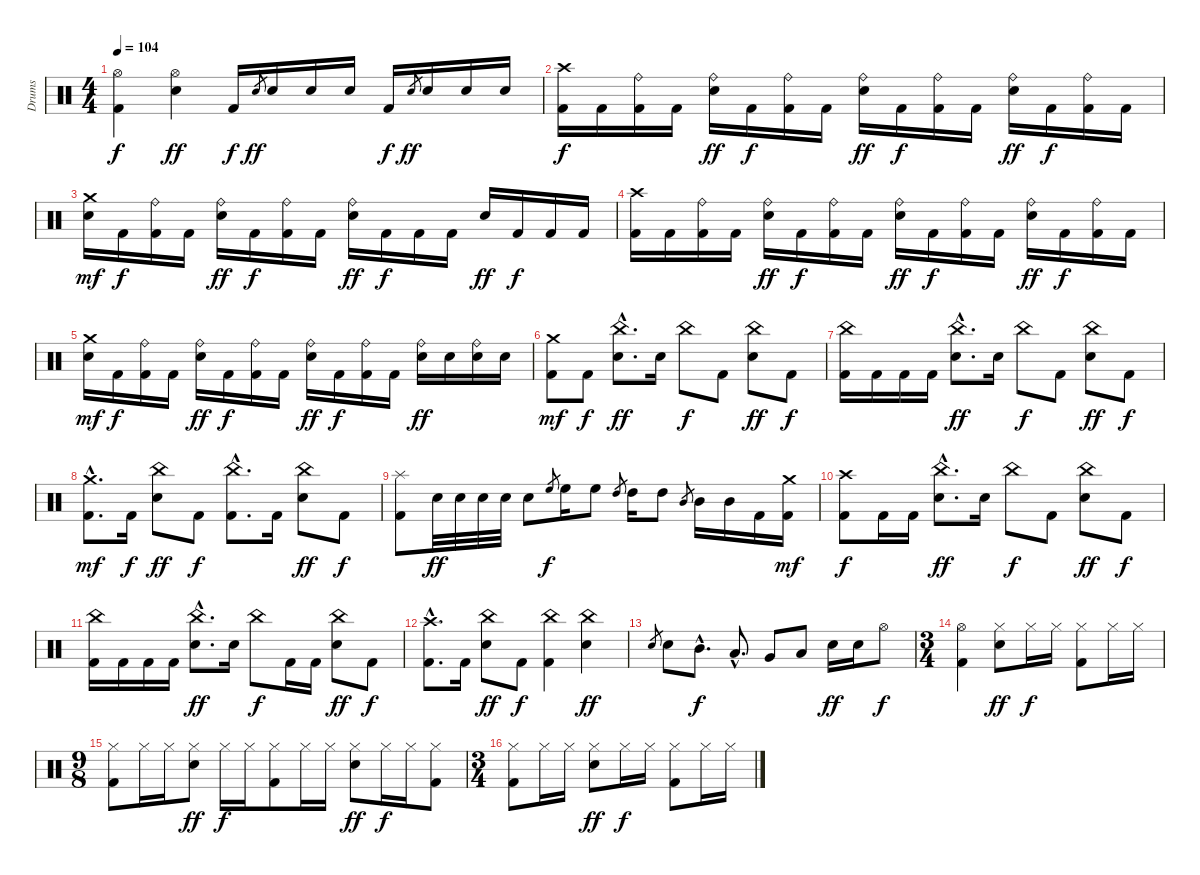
\track ("Drums" "Drums") {instrument percussion}
\staff {score}
\articulation defaults
\ts (4 4)
\tempo 104
\clef neutral
\ks c
("Kick (hit) 2" "Hi-Hat (open)").4{dy f} ("Electric Snare (hit)" "Hi-Hat (open)").4{dy ff} "Kick (hit) 2".16{dy f} "Electric Snare (hit)".8{gr dy ff} "Electric Snare (hit)".16 "Electric Snare (hit)".16 "Electric Snare (hit)".16 "Kick (hit) 2".16{dy f} "Electric Snare (hit)".8{gr dy ff} "Electric Snare (hit)".16 "Electric Snare (hit)".16 "Electric Snare (hit)".16 |
("Kick (hit) 2" "Crash high (hit)").16{dy f} "Kick (hit) 2".16 ("Kick (hit) 2" "Ride (bell)").16 "Kick (hit) 2".16 ("Electric Snare (hit)" "Ride (bell)").16{dy ff} "Kick (hit) 2".16{dy f} ("Kick (hit) 2" "Ride (bell)").16 "Kick (hit) 2".16 ("Electric Snare (hit)" "Ride (bell)").16{dy ff} "Kick (hit) 2".16{dy f} ("Kick (hit) 2" "Ride (bell)").16 "Kick (hit) 2".16 ("Electric Snare (hit)" "Ride (bell)").16{dy ff} "Kick (hit) 2".16{dy f} ("Kick (hit) 2" "Ride (bell)").16 "Kick (hit) 2".16 |
("Electric Snare (hit)" "Crash medium (hit)").16{dy mf} "Kick (hit) 2".16{dy f} ("Kick (hit) 2" "Ride (bell)").16 "Kick (hit) 2".16 ("Electric Snare (hit)" "Ride (bell)").16{dy ff} "Kick (hit) 2".16{dy f} ("Kick (hit) 2" "Ride (bell)").16 "Kick (hit) 2".16 ("Electric Snare (hit)" "Ride (bell)").16{dy ff} "Kick (hit) 2".16{dy f} "Kick (hit) 2".16 "Kick (hit) 2".16 "Electric Snare (hit)".16{dy ff} "Kick (hit) 2".16{dy f} "Kick (hit) 2".16 "Kick (hit) 2".16 |
("Kick (hit) 2" "Crash high (hit)").16 "Kick (hit) 2".16 ("Kick (hit) 2" "Ride (bell)").16 "Kick (hit) 2".16 ("Electric Snare (hit)" "Ride (bell)").16{dy ff} "Kick (hit) 2".16{dy f} ("Kick (hit) 2" "Ride (bell)").16 "Kick (hit) 2".16 ("Electric Snare (hit)" "Ride (bell)").16{dy ff} "Kick (hit) 2".16{dy f} ("Kick (hit) 2" "Ride (bell)").16 "Kick (hit) 2".16 ("Electric Snare (hit)" "Ride (bell)").16{dy ff} "Kick (hit) 2".16{dy f} ("Kick (hit) 2" "Ride (bell)").16 "Kick (hit) 2".16 |
("Electric Snare (hit)" "Crash medium (hit)").16{dy mf} "Kick (hit) 2".16{dy f} ("Kick (hit) 2" "Ride (bell)").16 "Kick (hit) 2".16 ("Electric Snare (hit)" "Ride (bell)").16{dy ff} "Kick (hit) 2".16{dy f} ("Kick (hit) 2" "Ride (bell)").16 "Kick (hit) 2".16 ("Electric Snare (hit)" "Ride (bell)").16{dy ff} "Kick (hit) 2".16{dy f} ("Kick (hit) 2" "Ride (bell)").16 "Kick (hit) 2".16 ("Electric Snare (hit)" "Ride (bell)").16{dy ff} "Electric Snare (hit)".16 ("Electric Snare (hit)" "Ride (bell)").16 "Electric Snare (hit)".16 |
("Kick (hit) 2" "Crash medium (hit)").8{dy mf} "Kick (hit) 2".8{dy f} ("Electric Snare (hit)"{hac} "China (hit)").8{d dy ff} "Electric Snare (hit)".16 "China (hit)".8{dy f} "Kick (hit) 2".8 ("Electric Snare (hit)" "China (hit)").8{dy ff} "Kick (hit) 2".8{dy f} |
("Kick (hit) 2" "China (hit)").16 "Kick (hit) 2".16 "Kick (hit) 2".16 "Kick (hit) 2".16 ("Electric Snare (hit)"{hac} "China (hit)"{hac}).8{d dy ff} "Electric Snare (hit)".16 "China (hit)".8{dy f} "Kick (hit) 2".8 ("Electric Snare (hit)" "China (hit)").8{dy ff} "Kick (hit) 2".8{dy f} |
("Kick (hit) 2"{hac} "Crash medium (hit)").8{d dy mf} "Kick (hit) 2".16{dy f} ("Electric Snare (hit)" "China (hit)").8{dy ff} "Kick (hit) 2".8{dy f} ("Kick (hit) 2"{hac} "China (hit)").8{d} "Kick (hit) 2".16 ("Electric Snare (hit)" "China (hit)").8{dy ff} "Kick (hit) 2".8{dy f} |
("Kick (hit) 2" "Splash (hit)").8 "Electric Snare (hit)".32{dy ff} "Electric Snare (hit)".32 "Electric Snare (hit)".32 "Electric Snare (hit)".32 "Electric Snare (hit)".8 "High Floor Tom (hit)".8{gr dy f} "High Floor Tom (hit)".16 "High Floor Tom (hit)".8 "High Tom (hit)".8{gr} "High Tom (hit)".16 "High Tom (hit)".8 "Mid Tom (hit)".8{gr} "Mid Tom (hit)".16 "Mid Tom (hit)".16 "Kick (hit) 2".16 ("Kick (hit) 2" "Crash medium (hit)").16{dy mf} |
("Kick (hit) 2" "Crash high (hit)").8{dy f} "Kick (hit) 2".16 "Kick (hit) 2".16 ("Electric Snare (hit)"{hac} "China (hit)").8{d dy ff} "Electric Snare (hit)".16 "China (hit)".8{dy f} "Kick (hit) 2".8 ("Electric Snare (hit)" "China (hit)").8{dy ff} "Kick (hit) 2".8{dy f} |
("Kick (hit) 2" "China (hit)").16 "Kick (hit) 2".16 "Kick (hit) 2".16 "Kick (hit) 2".16 ("Electric Snare (hit)"{hac} "China (hit)"{hac}).8{d dy ff} "Electric Snare (hit)".16 "China (hit)".8{dy f} "Kick (hit) 2".16 "Kick (hit) 2".16 ("Electric Snare (hit)" "China (hit)").8{dy ff} "Kick (hit) 2".8{dy f} |
("Kick (hit) 2"{hac} "Crash high (hit)"{hac}).8{d} "Kick (hit) 2".16 ("Electric Snare (hit)" "China (hit)").8{dy ff} "Kick (hit) 2".8{dy f} ("Kick (hit) 2" "China (hit)").4 ("Electric Snare (hit)" "China (hit)").4{dy ff} |
"Electric Snare (hit)".8{gr} "Electric Snare (hit)".8 "Mid Tom (hit)"{hac}.8{d dy f} "Low Tom (hit)"{hac}.8{d} "Very Low Tom (hit)".8 "Low Floor Tom (hit)".8 "Electric Snare (hit)".16{dy ff} "Electric Snare (hit)".16 "Hi-Hat (open)".8{dy f} |
\ts (3 4)
("Kick (hit) 2" "Hi-Hat (open)").4 ("Electric Snare (hit)" "Hi-Hat (closed)").8{dy ff} "Hi-Hat (closed)".16{dy f} "Hi-Hat (closed)".16 ("Kick (hit) 2" "Hi-Hat (closed)").8 "Hi-Hat (closed)".16 "Hi-Hat (closed)".16 |
\ts (9 8)
("Kick (hit) 2" "Hi-Hat (closed)").8 "Hi-Hat (closed)".16 "Hi-Hat (closed)".16 ("Electric Snare (hit)" "Hi-Hat (closed)").8{dy ff} "Hi-Hat (closed)".16{dy f} "Hi-Hat (closed)".16 ("Kick (hit) 2" "Hi-Hat (closed)").8 "Hi-Hat (closed)".16 "Hi-Hat (closed)".16 ("Electric Snare (hit)" "Hi-Hat (closed)").8{dy ff} "Hi-Hat (closed)".16{dy f} "Hi-Hat (closed)".16 ("Kick (hit) 2" "Hi-Hat (closed)").8 |
\ts (3 4)
("Kick (hit) 2" "Hi-Hat (closed)").8 "Hi-Hat (closed)".16 "Hi-Hat (closed)".16 ("Electric Snare (hit)" "Hi-Hat (closed)").8{dy ff} "Hi-Hat (closed)".16{dy f} "Hi-Hat (closed)".16 ("Kick (hit) 2" "Hi-Hat (closed)").8 "Hi-Hat (closed)".16 "Hi-Hat (closed)".16
